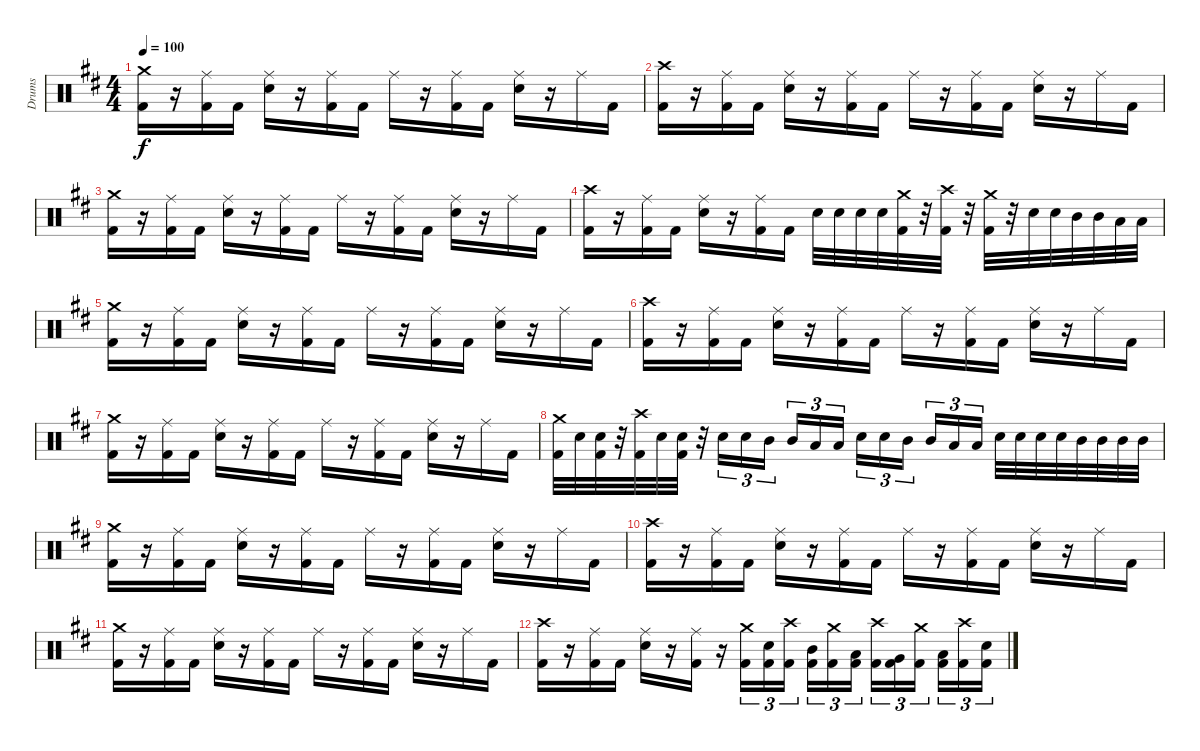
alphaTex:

\track ("Drums" "Drums") {instrument percussion}
\staff {score}
\articulation defaults
\ts (4 4)
\tempo 100
\clef neutral
\ks d
("Crash medium (hit)" "Kick (hit) 2").16{dy f} r.16 ("Ride (middle)" "Kick (hit) 2").16 "Kick (hit) 2".16 ("Ride (middle)" "Snare (hit) 2").16 r.16 ("Ride (middle)" "Kick (hit) 2").16 "Kick (hit) 2".16 "Ride (middle)".16 r.16 ("Ride (middle)" "Kick (hit) 2").16 "Kick (hit) 2".16 ("Ride (middle)" "Snare (hit) 2").16 r.16 "Ride (middle)".16 "Kick (hit) 2".16 |
("Crash high (hit)" "Kick (hit) 2").16 r.16 ("Ride (middle)" "Kick (hit) 2").16 "Kick (hit) 2".16 ("Ride (middle)" "Snare (hit) 2").16 r.16 ("Ride (middle)" "Kick (hit) 2").16 "Kick (hit) 2".16 "Ride (middle)".16 r.16 ("Ride (middle)" "Kick (hit) 2").16 "Kick (hit) 2".16 ("Ride (middle)" "Snare (hit) 2").16 r.16 "Ride (middle)".16 "Kick (hit) 2".16 |
("Crash medium (hit)" "Kick (hit) 2").16 r.16 ("Ride (middle)" "Kick (hit) 2").16 "Kick (hit) 2".16 ("Ride (middle)" "Snare (hit) 2").16 r.16 ("Ride (middle)" "Kick (hit) 2").16 "Kick (hit) 2".16 "Ride (middle)".16 r.16 ("Ride (middle)" "Kick (hit) 2").16 "Kick (hit) 2".16 ("Ride (middle)" "Snare (hit) 2").16 r.16 "Ride (middle)".16 "Kick (hit) 2".16 |
("Crash high (hit)" "Kick (hit) 2").16 r.16 ("Ride (middle)" "Kick (hit) 2").16 "Kick (hit) 2".16 ("Ride (middle)" "Snare (hit) 2").16 r.16 ("Ride (middle)" "Kick (hit) 2").16 "Kick (hit) 2".16 "Snare (hit) 2".32 "Snare (hit) 2".32 "Snare (hit) 2".32 "Snare (hit) 2".32 ("Crash medium (hit)" "Kick (hit) 2").32 r.32 ("Crash high (hit)" "Kick (hit) 2").32 r.32 ("Crash medium (hit)" "Kick (hit) 2").32 r.32 "Snare (hit) 2".32 "Snare (hit) 2".32 "Mid Tom (hit)".32 "Mid Tom (hit)".32 "Low Tom (hit)".32 "Low Tom (hit)".32 |
("Crash medium (hit)" "Kick (hit) 2").16 r.16 ("Ride (middle)" "Kick (hit) 2").16 "Kick (hit) 2".16 ("Ride (middle)" "Snare (hit) 2").16 r.16 ("Ride (middle)" "Kick (hit) 2").16 "Kick (hit) 2".16 "Ride (middle)".16 r.16 ("Ride (middle)" "Kick (hit) 2").16 "Kick (hit) 2".16 ("Ride (middle)" "Snare (hit) 2").16 r.16 "Ride (middle)".16 "Kick (hit) 2".16 |
("Crash high (hit)" "Kick (hit) 2").16 r.16 ("Ride (middle)" "Kick (hit) 2").16 "Kick (hit) 2".16 ("Ride (middle)" "Snare (hit) 2").16 r.16 ("Ride (middle)" "Kick (hit) 2").16 "Kick (hit) 2".16 "Ride (middle)".16 r.16 ("Ride (middle)" "Kick (hit) 2").16 "Kick (hit) 2".16 ("Ride (middle)" "Snare (hit) 2").16 r.16 "Ride (middle)".16 "Kick (hit) 2".16 |
("Crash medium (hit)" "Kick (hit) 2").16 r.16 ("Ride (middle)" "Kick (hit) 2").16 "Kick (hit) 2".16 ("Ride (middle)" "Snare (hit) 2").16 r.16 ("Ride (middle)" "Kick (hit) 2").16 "Kick (hit) 2".16 "Ride (middle)".16 r.16 ("Ride (middle)" "Kick (hit) 2").16 "Kick (hit) 2".16 ("Ride (middle)" "Snare (hit) 2").16 r.16 "Ride (middle)".16 "Kick (hit) 2".16 |
("Crash medium (hit)" "Kick (hit) 2").32 "Snare (hit) 2".32 ("Snare (hit) 2" "Kick (hit) 2").32 r.32 ("Crash high (hit)" "Kick (hit) 2").32 "Snare (hit) 2".32 ("Snare (hit) 2" "Kick (hit) 2").32 r.32 "Snare (hit) 2".16{tu (3 2)} "Snare (hit) 2".16{tu (3 2)} "Mid Tom (hit)".16{tu (3 2) beam splitsecondary} "Mid Tom (hit)".16{tu (3 2)} "Low Tom (hit)".16{tu (3 2)} "Low Tom (hit)".16{tu (3 2)} "Snare (hit) 2".16{tu (3 2)} "Snare (hit) 2".16{tu (3 2)} "Mid Tom (hit)".16{tu (3 2) beam splitsecondary} "Mid Tom (hit)".16{tu (3 2)} "Low Tom (hit)".16{tu (3 2)} "Low Tom (hit)".16{tu (3 2)} "Snare (hit) 2".32 "Snare (hit) 2".32 "Snare (hit) 2".32 "Snare (hit) 2".32 "Mid Tom (hit)".32 "Mid Tom (hit)".32 "Mid Tom (hit)".32 "Mid Tom (hit)".32 |
("Crash medium (hit)" "Kick (hit) 2").16 r.16 ("Ride (middle)" "Kick (hit) 2").16 "Kick (hit) 2".16 ("Ride (middle)" "Snare (hit) 2").16 r.16 ("Ride (middle)" "Kick (hit) 2").16 "Kick (hit) 2".16 "Ride (middle)".16 r.16 ("Ride (middle)" "Kick (hit) 2").16 "Kick (hit) 2".16 ("Ride (middle)" "Snare (hit) 2").16 r.16 "Ride (middle)".16 "Kick (hit) 2".16 |
("Crash high (hit)" "Kick (hit) 2").16 r.16 ("Ride (middle)" "Kick (hit) 2").16 "Kick (hit) 2".16 ("Ride (middle)" "Snare (hit) 2").16 r.16 ("Ride (middle)" "Kick (hit) 2").16 "Kick (hit) 2".16 "Ride (middle)".16 r.16 ("Ride (middle)" "Kick (hit) 2").16 "Kick (hit) 2".16 ("Ride (middle)" "Snare (hit) 2").16 r.16 "Ride (middle)".16 "Kick (hit) 2".16 |
("Crash medium (hit)" "Kick (hit) 2").16 r.16 ("Ride (middle)" "Kick (hit) 2").16 "Kick (hit) 2".16 ("Ride (middle)" "Snare (hit) 2").16 r.16 ("Ride (middle)" "Kick (hit) 2").16 "Kick (hit) 2".16 "Ride (middle)".16 r.16 ("Ride (middle)" "Kick (hit) 2").16 "Kick (hit) 2".16 ("Ride (middle)" "Snare (hit) 2").16 r.16 "Ride (middle)".16 "Kick (hit) 2".16 |
("Crash high (hit)" "Kick (hit) 2").16 r.16 ("Ride (middle)" "Kick (hit) 2").16 "Kick (hit) 2".16 ("Ride (middle)" "Snare (hit) 2").16 r.16 ("Ride (middle)" "Kick (hit) 2").16 r.16 ("Crash medium (hit)" "Kick (hit) 2").16{tu (3 2)} ("Snare (hit) 2" "Kick (hit) 2").16{tu (3 2)} ("Crash high (hit)" "Kick (hit) 2").16{tu (3 2) beam splitsecondary} ("Mid Tom (hit)" "Kick (hit) 2").16{tu (3 2)} ("Crash medium (hit)" "Kick (hit) 2").16{tu (3 2)} ("Low Tom (hit)" "Kick (hit) 2").16{tu (3 2)} ("Crash high (hit)" "Kick (hit) 2").16{tu (3 2)} ("Very Low Tom (hit)" "Kick (hit) 2").16{tu (3 2)} ("Crash medium (hit)" "Kick (hit) 2").16{tu (3 2) beam splitsecondary} ("Low Floor Tom (hit)" "Kick (hit) 2").16{tu (3 2)} ("Crash high (hit)" "Kick (hit) 2").16{tu (3 2)} ("Snare (hit) 2" "Kick (hit) 2").16{tu (3 2)}
